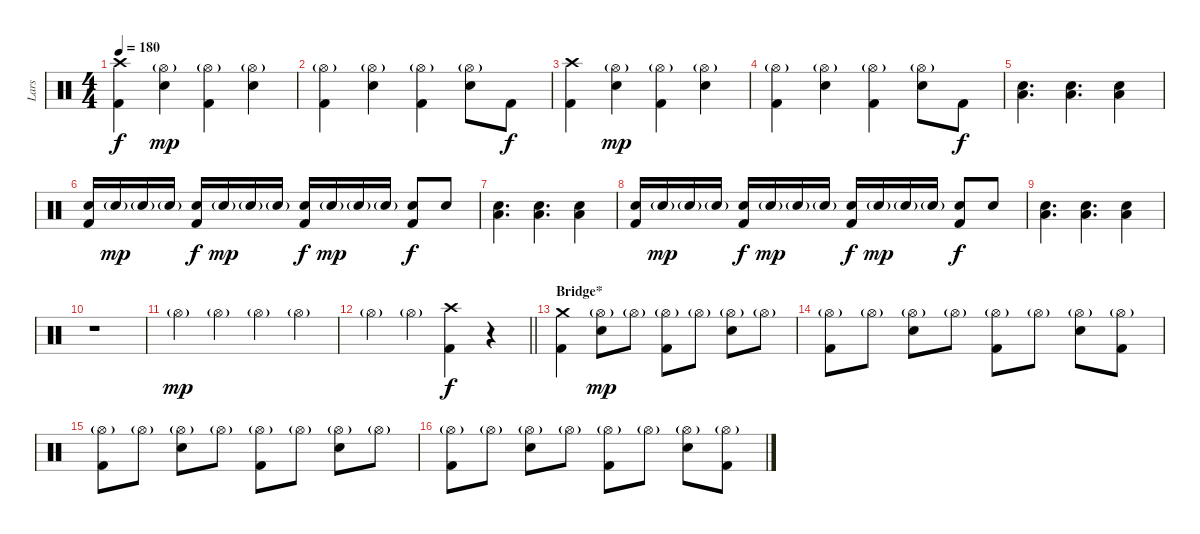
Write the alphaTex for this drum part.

\track ("Lars" "Lars") {instrument percussion}
\staff {score}
\articulation defaults
\ts (4 4)
\tempo 180
\clef neutral
\ks c
("Crash high (hit)" "Kick (hit) 2").4{dy f} ("Hi-Hat (open)"{g} "Electric Snare (hit)").4{dy mp} ("Hi-Hat (open)"{g} "Kick (hit) 2").4 ("Hi-Hat (open)"{g} "Electric Snare (hit)").4 |
("Hi-Hat (open)"{g} "Kick (hit) 2").4 ("Hi-Hat (open)"{g} "Electric Snare (hit)").4 ("Hi-Hat (open)"{g} "Kick (hit) 2").4 ("Hi-Hat (open)"{g} "Electric Snare (hit)").8 "Kick (hit) 2".8{dy f} |
("Crash high (hit)" "Kick (hit) 2").4 ("Hi-Hat (open)"{g} "Electric Snare (hit)").4{dy mp} ("Hi-Hat (open)"{g} "Kick (hit) 2").4 ("Hi-Hat (open)"{g} "Electric Snare (hit)").4 |
("Hi-Hat (open)"{g} "Kick (hit) 2").4 ("Hi-Hat (open)"{g} "Electric Snare (hit)").4 ("Hi-Hat (open)"{g} "Kick (hit) 2").4 ("Hi-Hat (open)"{g} "Electric Snare (hit)").8 "Kick (hit) 2".8{dy f} |
("Low Floor Tom (hit)" "Electric Snare (hit)").4{d} ("Low Floor Tom (hit)" "Electric Snare (hit)").4{d} ("Low Floor Tom (hit)" "Electric Snare (hit)").4 |
("Electric Snare (hit)" "Kick (hit) 2").16 "Electric Snare (hit)"{g}.16{dy mp} "Electric Snare (hit)"{g}.16 "Electric Snare (hit)"{g}.16 ("Electric Snare (hit)" "Kick (hit) 2").16{dy f} "Electric Snare (hit)"{g}.16{dy mp} "Electric Snare (hit)"{g}.16 "Electric Snare (hit)"{g}.16 ("Electric Snare (hit)" "Kick (hit) 2").16{dy f} "Electric Snare (hit)"{g}.16{dy mp} "Electric Snare (hit)"{g}.16 "Electric Snare (hit)"{g}.16 ("Electric Snare (hit)" "Kick (hit) 2").8{dy f} "Electric Snare (hit)".8 |
("Low Floor Tom (hit)" "Electric Snare (hit)").4{d} ("Low Floor Tom (hit)" "Electric Snare (hit)").4{d} ("Low Floor Tom (hit)" "Electric Snare (hit)").4 |
("Electric Snare (hit)" "Kick (hit) 2").16 "Electric Snare (hit)"{g}.16{dy mp} "Electric Snare (hit)"{g}.16 "Electric Snare (hit)"{g}.16 ("Electric Snare (hit)" "Kick (hit) 2").16{dy f} "Electric Snare (hit)"{g}.16{dy mp} "Electric Snare (hit)"{g}.16 "Electric Snare (hit)"{g}.16 ("Electric Snare (hit)" "Kick (hit) 2").16{dy f} "Electric Snare (hit)"{g}.16{dy mp} "Electric Snare (hit)"{g}.16 "Electric Snare (hit)"{g}.16 ("Electric Snare (hit)" "Kick (hit) 2").8{dy f} "Electric Snare (hit)".8 |
("Low Floor Tom (hit)" "Electric Snare (hit)").4{d} ("Low Floor Tom (hit)" "Electric Snare (hit)").4{d} ("Low Floor Tom (hit)" "Electric Snare (hit)").4 |
r.1 |
"Hi-Hat (open)"{g}.4{dy mp} "Hi-Hat (open)"{g}.4 "Hi-Hat (open)"{g}.4 "Hi-Hat (open)"{g}.4 |
\barLineRight lightlight "Hi-Hat (open)"{g}.4 "Hi-Hat (open)"{g}.4
("Crash high (hit)" "Kick (hit) 2").4{dy f} r.4{volume 0} |
\section ("" "Bridge*")
("Crash medium (hit)" "Kick (hit) 2").4{volume 15} ("Hi-Hat (open)"{g} "Electric Snare (hit)").8{dy mp} "Hi-Hat (open)"{g}.8 ("Hi-Hat (open)"{g} "Kick (hit) 2").8 "Hi-Hat (open)"{g}.8 ("Hi-Hat (open)"{g} "Electric Snare (hit)").8 "Hi-Hat (open)"{g}.8 |
("Hi-Hat (open)"{g} "Kick (hit) 2").8 "Hi-Hat (open)"{g}.8 ("Hi-Hat (open)"{g} "Electric Snare (hit)").8 "Hi-Hat (open)"{g}.8 ("Hi-Hat (open)"{g} "Kick (hit) 2").8 "Hi-Hat (open)"{g}.8 ("Hi-Hat (open)"{g} "Electric Snare (hit)").8 ("Hi-Hat (open)"{g} "Kick (hit) 2").8 |
("Hi-Hat (open)"{g} "Kick (hit) 2").8 "Hi-Hat (open)"{g}.8 ("Hi-Hat (open)"{g} "Electric Snare (hit)").8 "Hi-Hat (open)"{g}.8 ("Hi-Hat (open)"{g} "Kick (hit) 2").8 "Hi-Hat (open)"{g}.8 ("Hi-Hat (open)"{g} "Electric Snare (hit)").8 "Hi-Hat (open)"{g}.8 |
("Hi-Hat (open)"{g} "Kick (hit) 2").8 "Hi-Hat (open)"{g}.8 ("Hi-Hat (open)"{g} "Electric Snare (hit)").8 "Hi-Hat (open)"{g}.8 ("Hi-Hat (open)"{g} "Kick (hit) 2").8 "Hi-Hat (open)"{g}.8 ("Hi-Hat (open)"{g} "Electric Snare (hit)").8 ("Hi-Hat (open)"{g} "Kick (hit) 2").8
